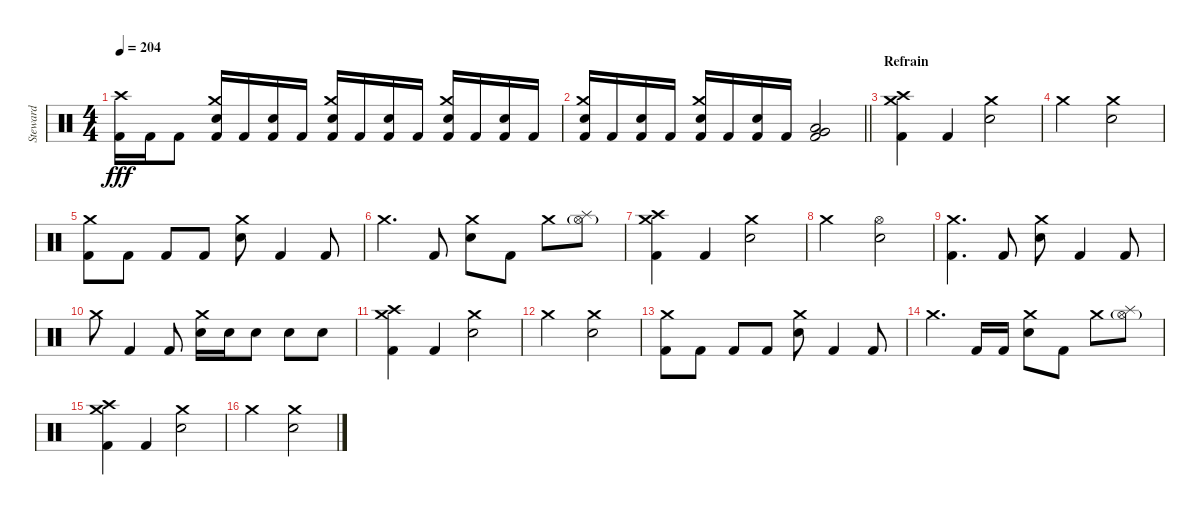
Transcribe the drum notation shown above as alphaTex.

\track ("Steward" "Steward") {instrument percussion}
\staff {score}
\articulation defaults
\ts (4 4)
\tempo 204
\clef neutral
\ks c
("Crash high (hit)" "Kick (hit) 2").16{dy fff} "Kick (hit) 2".16 "Kick (hit) 2".8 ("Crash medium (hit)" "Electric Snare (hit)" "Kick (hit) 2").16 "Kick (hit) 2".16 ("Electric Snare (hit)" "Kick (hit) 2").16 "Kick (hit) 2".16 ("Crash medium (hit)" "Electric Snare (hit)" "Kick (hit) 2").16 "Kick (hit) 2".16 ("Electric Snare (hit)" "Kick (hit) 2").16 "Kick (hit) 2".16 ("Crash medium (hit)" "Electric Snare (hit)" "Kick (hit) 2").16 "Kick (hit) 2".16 ("Electric Snare (hit)" "Kick (hit) 2").16 "Kick (hit) 2".16 |
\barLineRight lightlight
("Crash medium (hit)" "Electric Snare (hit)" "Kick (hit) 2").16 "Kick (hit) 2".16 ("Electric Snare (hit)" "Kick (hit) 2").16 "Kick (hit) 2".16 ("Crash medium (hit)" "Electric Snare (hit)" "Kick (hit) 2").16 "Kick (hit) 2".16 ("Electric Snare (hit)" "Kick (hit) 2").16 "Kick (hit) 2".16 ("Very Low Tom (hit)" "Low Floor Tom (hit)" "Kick (hit) 2").2 |
\section ("" "Refrain ")
("Crash medium (hit)" "Crash high (hit)" "Kick (hit) 2").4 "Kick (hit) 2".4 ("Crash medium (hit)" "Electric Snare (hit)").2 |
"Crash medium (hit)".2 ("Crash medium (hit)" "Electric Snare (hit)").2 |
("Crash medium (hit)" "Kick (hit) 2").8 "Kick (hit) 2".8 "Kick (hit) 2".8 "Kick (hit) 2".8 ("Crash medium (hit)" "Electric Snare (hit)").8 "Kick (hit) 2".4 "Kick (hit) 2".8 |
"Crash medium (hit)".4{d} "Kick (hit) 2".8 ("Crash medium (hit)" "Electric Snare (hit)").8 "Kick (hit) 2".8 "Crash medium (hit)".8 ("Splash (hit)" "Hi-Hat (open)"{g}).8 |
("Crash medium (hit)" "Crash high (hit)" "Kick (hit) 2").4 "Kick (hit) 2".4 ("Crash medium (hit)" "Electric Snare (hit)").2 |
"Crash medium (hit)".2 ("Hi-Hat (open)" "Electric Snare (hit)").2 |
("Crash medium (hit)" "Kick (hit) 2").4{d} "Kick (hit) 2".8 ("Crash medium (hit)" "Electric Snare (hit)").8 "Kick (hit) 2".4 "Kick (hit) 2".8 |
"Crash medium (hit)".8 "Kick (hit) 2".4 "Kick (hit) 2".8 ("Crash medium (hit)" "Electric Snare (hit)").16 "Electric Snare (hit)".16 "Electric Snare (hit)".8 "Electric Snare (hit)".8 "Electric Snare (hit)".8 |
("Crash medium (hit)" "Crash high (hit)" "Kick (hit) 2").4 "Kick (hit) 2".4 ("Crash medium (hit)" "Electric Snare (hit)").2 |
"Crash medium (hit)".2 ("Crash medium (hit)" "Electric Snare (hit)").2 |
("Crash medium (hit)" "Kick (hit) 2").8 "Kick (hit) 2".8 "Kick (hit) 2".8 "Kick (hit) 2".8 ("Crash medium (hit)" "Electric Snare (hit)").8 "Kick (hit) 2".4 "Kick (hit) 2".8 |
"Crash medium (hit)".4{d} "Kick (hit) 2".16 "Kick (hit) 2".16 ("Crash medium (hit)" "Electric Snare (hit)").8 "Kick (hit) 2".8 "Crash medium (hit)".8 ("Splash (hit)" "Hi-Hat (open)"{g}).8 |
("Crash medium (hit)" "Crash high (hit)" "Kick (hit) 2").4 "Kick (hit) 2".4 ("Crash medium (hit)" "Electric Snare (hit)").2 |
"Crash medium (hit)".2 ("Crash medium (hit)" "Electric Snare (hit)").2
